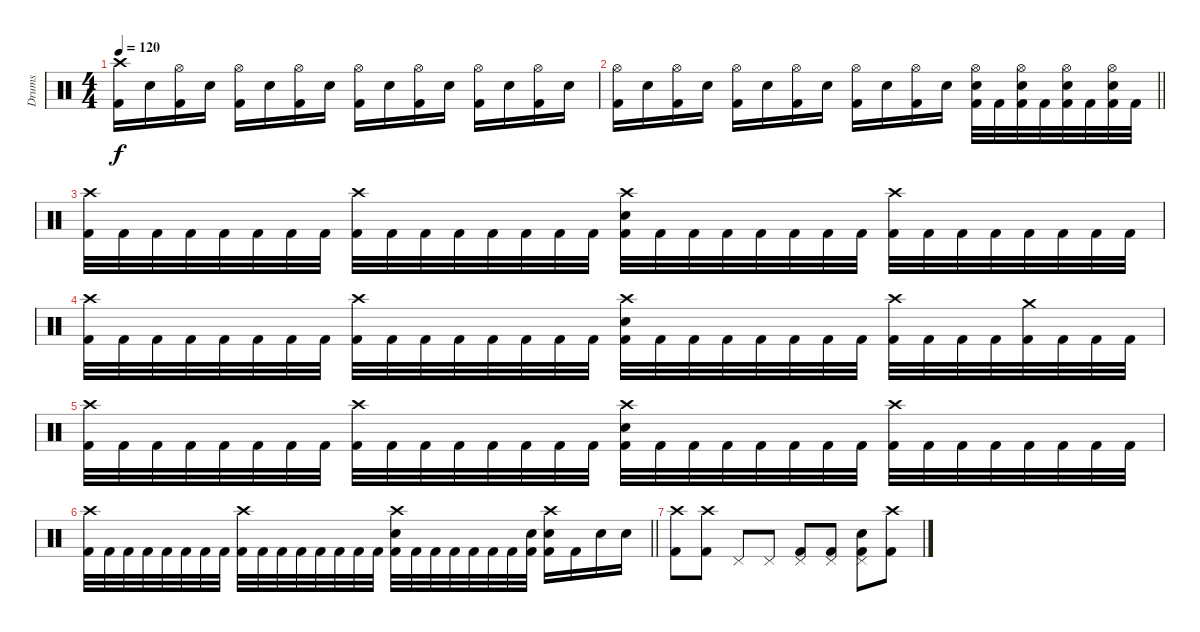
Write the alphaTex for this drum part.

\track ("Drums" "Drums") {instrument percussion}
\staff
\articulation defaults
\ts (4 4)
\tempo 120
\clef neutral
\ks c
("Crash high (hit)" "Kick (hit) 2").16{dy f} "Electric Snare (hit)".16 ("Hi-Hat (open)" "Kick (hit) 2").16 "Electric Snare (hit)".16 ("Hi-Hat (open)" "Kick (hit) 2").16 "Electric Snare (hit)".16 ("Hi-Hat (open)" "Kick (hit) 2").16 "Electric Snare (hit)".16 ("Hi-Hat (open)" "Kick (hit) 2").16 "Electric Snare (hit)".16 ("Hi-Hat (open)" "Kick (hit) 2").16 "Electric Snare (hit)".16 ("Hi-Hat (open)" "Kick (hit) 2").16 "Electric Snare (hit)".16 ("Hi-Hat (open)" "Kick (hit) 2").16 "Electric Snare (hit)".16 |
\barLineRight lightlight
("Hi-Hat (open)" "Kick (hit) 2").16 "Electric Snare (hit)".16 ("Hi-Hat (open)" "Kick (hit) 2").16 "Electric Snare (hit)".16 ("Hi-Hat (open)" "Kick (hit) 2").16 "Electric Snare (hit)".16 ("Hi-Hat (open)" "Kick (hit) 2").16 "Electric Snare (hit)".16 ("Hi-Hat (open)" "Kick (hit) 2").16 "Electric Snare (hit)".16 ("Hi-Hat (open)" "Kick (hit) 2").16 "Electric Snare (hit)".16 ("Hi-Hat (open)" "Electric Snare (hit)" "Kick (hit) 2").32 "Kick (hit) 2".32 ("Hi-Hat (open)" "Electric Snare (hit)" "Kick (hit) 2").32 "Kick (hit) 2".32 ("Hi-Hat (open)" "Electric Snare (hit)" "Kick (hit) 2").32 "Kick (hit) 2".32 ("Hi-Hat (open)" "Electric Snare (hit)" "Kick (hit) 2").32 "Kick (hit) 2".32 |
("Crash high (hit)" "Kick (hit) 2").32 "Kick (hit) 2".32 "Kick (hit) 2".32 "Kick (hit) 2".32 "Kick (hit) 2".32 "Kick (hit) 2".32 "Kick (hit) 2".32 "Kick (hit) 2".32 ("Crash high (hit)" "Kick (hit) 2").32 "Kick (hit) 2".32 "Kick (hit) 2".32 "Kick (hit) 2".32 "Kick (hit) 2".32 "Kick (hit) 2".32 "Kick (hit) 2".32 "Kick (hit) 2".32 ("Crash high (hit)" "Electric Snare (hit)" "Kick (hit) 2").32 "Kick (hit) 2".32 "Kick (hit) 2".32 "Kick (hit) 2".32 "Kick (hit) 2".32 "Kick (hit) 2".32 "Kick (hit) 2".32 "Kick (hit) 2".32 ("Crash high (hit)" "Kick (hit) 2").32 "Kick (hit) 2".32 "Kick (hit) 2".32 "Kick (hit) 2".32 "Kick (hit) 2".32 "Kick (hit) 2".32 "Kick (hit) 2".32 "Kick (hit) 2".32 |
("Crash high (hit)" "Kick (hit) 2").32 "Kick (hit) 2".32 "Kick (hit) 2".32 "Kick (hit) 2".32 "Kick (hit) 2".32 "Kick (hit) 2".32 "Kick (hit) 2".32 "Kick (hit) 2".32 ("Crash high (hit)" "Kick (hit) 2").32 "Kick (hit) 2".32 "Kick (hit) 2".32 "Kick (hit) 2".32 "Kick (hit) 2".32 "Kick (hit) 2".32 "Kick (hit) 2".32 "Kick (hit) 2".32 ("Crash high (hit)" "Electric Snare (hit)" "Kick (hit) 2").32 "Kick (hit) 2".32 "Kick (hit) 2".32 "Kick (hit) 2".32 "Kick (hit) 2".32 "Kick (hit) 2".32 "Kick (hit) 2".32 "Kick (hit) 2".32 ("Crash high (hit)" "Kick (hit) 2").32 "Kick (hit) 2".32 "Kick (hit) 2".32 "Kick (hit) 2".32 ("Crash medium (hit)" "Kick (hit) 2").32 "Kick (hit) 2".32 "Kick (hit) 2".32 "Kick (hit) 2".32 |
("Crash high (hit)" "Kick (hit) 2").32 "Kick (hit) 2".32 "Kick (hit) 2".32 "Kick (hit) 2".32 "Kick (hit) 2".32 "Kick (hit) 2".32 "Kick (hit) 2".32 "Kick (hit) 2".32 ("Crash high (hit)" "Kick (hit) 2").32 "Kick (hit) 2".32 "Kick (hit) 2".32 "Kick (hit) 2".32 "Kick (hit) 2".32 "Kick (hit) 2".32 "Kick (hit) 2".32 "Kick (hit) 2".32 ("Crash high (hit)" "Electric Snare (hit)" "Kick (hit) 2").32 "Kick (hit) 2".32 "Kick (hit) 2".32 "Kick (hit) 2".32 "Kick (hit) 2".32 "Kick (hit) 2".32 "Kick (hit) 2".32 "Kick (hit) 2".32 ("Crash high (hit)" "Kick (hit) 2").32 "Kick (hit) 2".32 "Kick (hit) 2".32 "Kick (hit) 2".32 "Kick (hit) 2".32 "Kick (hit) 2".32 "Kick (hit) 2".32 "Kick (hit) 2".32 |
\barLineRight lightlight
("Crash high (hit)" "Kick (hit) 2").32 "Kick (hit) 2".32 "Kick (hit) 2".32 "Kick (hit) 2".32 "Kick (hit) 2".32 "Kick (hit) 2".32 "Kick (hit) 2".32 "Kick (hit) 2".32 ("Crash high (hit)" "Kick (hit) 2").32 "Kick (hit) 2".32 "Kick (hit) 2".32 "Kick (hit) 2".32 "Kick (hit) 2".32 "Kick (hit) 2".32 "Kick (hit) 2".32 "Kick (hit) 2".32 ("Crash high (hit)" "Electric Snare (hit)" "Kick (hit) 2").32 "Kick (hit) 2".32 "Kick (hit) 2".32 "Kick (hit) 2".32 "Kick (hit) 2".32 "Kick (hit) 2".32 "Kick (hit) 2".32 ("Electric Snare (hit)" "Kick (hit) 2").32 ("Crash high (hit)" "Electric Snare (hit)" "Kick (hit) 2").16 "Kick (hit) 2".16 "Electric Snare (hit)".16 "Electric Snare (hit)".16 |
("Crash high (hit)" "Kick (hit) 2").8 ("Crash high (hit)" "Kick (hit) 2").8 "Pedal Hi-Hat (hit)".8 "Pedal Hi-Hat (hit)".8 ("Pedal Hi-Hat (hit)" "Kick (hit) 2").8 ("Pedal Hi-Hat (hit)" "Kick (hit) 2").8 ("Pedal Hi-Hat (hit)" "Electric Snare (hit)" "Kick (hit) 2").8 ("Crash high (hit)" "Kick (hit) 2").8
